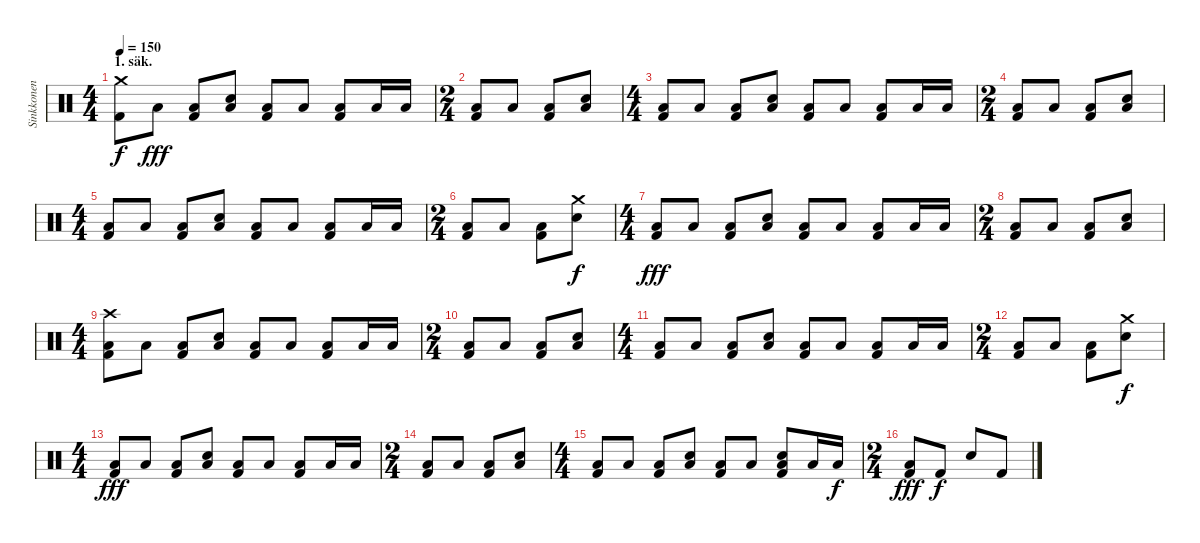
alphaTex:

\track ("Sinkkonen" "Sinkkonen") {instrument percussion}
\staff {score}
\articulation defaults
\ts (4 4)
\section ("" "1. säk.")
\tempo 150
\clef neutral
\ks c
("Kick (hit) 2" "Crash medium (hit)").8{dy f} "Low Floor Tom (hit)".8{dy fff} ("Kick (hit) 2" "Low Floor Tom (hit)").8 ("Low Floor Tom (hit)" "Snare (hit) 2").8 ("Kick (hit) 2" "Low Floor Tom (hit)").8 "Low Floor Tom (hit)".8 ("Kick (hit) 2" "Low Floor Tom (hit)").8 "Low Floor Tom (hit)".16 "Low Floor Tom (hit)".16 |
\ts (2 4)
("Kick (hit) 2" "Low Floor Tom (hit)").8 "Low Floor Tom (hit)".8 ("Kick (hit) 2" "Low Floor Tom (hit)").8 ("Low Floor Tom (hit)" "Snare (hit) 2").8 |
\ts (4 4)
("Kick (hit) 2" "Low Floor Tom (hit)").8 "Low Floor Tom (hit)".8 ("Kick (hit) 2" "Low Floor Tom (hit)").8 ("Low Floor Tom (hit)" "Snare (hit) 2").8 ("Kick (hit) 2" "Low Floor Tom (hit)").8 "Low Floor Tom (hit)".8 ("Kick (hit) 2" "Low Floor Tom (hit)").8 "Low Floor Tom (hit)".16 "Low Floor Tom (hit)".16 |
\ts (2 4)
("Kick (hit) 2" "Low Floor Tom (hit)").8 "Low Floor Tom (hit)".8 ("Kick (hit) 2" "Low Floor Tom (hit)").8 ("Low Floor Tom (hit)" "Snare (hit) 2").8 |
\ts (4 4)
("Kick (hit) 2" "Low Floor Tom (hit)").8 "Low Floor Tom (hit)".8 ("Kick (hit) 2" "Low Floor Tom (hit)").8 ("Low Floor Tom (hit)" "Snare (hit) 2").8 ("Kick (hit) 2" "Low Floor Tom (hit)").8 "Low Floor Tom (hit)".8 ("Kick (hit) 2" "Low Floor Tom (hit)").8 "Low Floor Tom (hit)".16 "Low Floor Tom (hit)".16 |
\ts (2 4)
("Kick (hit) 2" "Low Floor Tom (hit)").8 "Low Floor Tom (hit)".8 ("Kick (hit) 2" "Low Floor Tom (hit)").8 ("Crash medium (hit)" "Snare (hit) 2").8{dy f} |
\ts (4 4)
("Kick (hit) 2" "Low Floor Tom (hit)").8{dy fff} "Low Floor Tom (hit)".8 ("Kick (hit) 2" "Low Floor Tom (hit)").8 ("Low Floor Tom (hit)" "Snare (hit) 2").8 ("Kick (hit) 2" "Low Floor Tom (hit)").8 "Low Floor Tom (hit)".8 ("Kick (hit) 2" "Low Floor Tom (hit)").8 "Low Floor Tom (hit)".16 "Low Floor Tom (hit)".16 |
\ts (2 4)
("Kick (hit) 2" "Low Floor Tom (hit)").8 "Low Floor Tom (hit)".8 ("Kick (hit) 2" "Low Floor Tom (hit)").8 ("Low Floor Tom (hit)" "Snare (hit) 2").8 |
\ts (4 4)
("Kick (hit) 2" "Crash high (hit)" "Low Floor Tom (hit)").8 "Low Floor Tom (hit)".8 ("Kick (hit) 2" "Low Floor Tom (hit)").8 ("Low Floor Tom (hit)" "Snare (hit) 2").8 ("Kick (hit) 2" "Low Floor Tom (hit)").8 "Low Floor Tom (hit)".8 ("Kick (hit) 2" "Low Floor Tom (hit)").8 "Low Floor Tom (hit)".16 "Low Floor Tom (hit)".16 |
\ts (2 4)
("Kick (hit) 2" "Low Floor Tom (hit)").8 "Low Floor Tom (hit)".8 ("Kick (hit) 2" "Low Floor Tom (hit)").8 ("Low Floor Tom (hit)" "Snare (hit) 2").8 |
\ts (4 4)
("Kick (hit) 2" "Low Floor Tom (hit)").8 "Low Floor Tom (hit)".8 ("Kick (hit) 2" "Low Floor Tom (hit)").8 ("Low Floor Tom (hit)" "Snare (hit) 2").8 ("Kick (hit) 2" "Low Floor Tom (hit)").8 "Low Floor Tom (hit)".8 ("Kick (hit) 2" "Low Floor Tom (hit)").8 "Low Floor Tom (hit)".16 "Low Floor Tom (hit)".16 |
\ts (2 4)
("Kick (hit) 2" "Low Floor Tom (hit)").8 "Low Floor Tom (hit)".8 ("Kick (hit) 2" "Low Floor Tom (hit)").8 ("Crash medium (hit)" "Snare (hit) 2").8{dy f} |
\ts (4 4)
("Kick (hit) 2" "Low Floor Tom (hit)").8{dy fff} "Low Floor Tom (hit)".8 ("Kick (hit) 2" "Low Floor Tom (hit)").8 ("Low Floor Tom (hit)" "Snare (hit) 2").8 ("Kick (hit) 2" "Low Floor Tom (hit)").8 "Low Floor Tom (hit)".8 ("Kick (hit) 2" "Low Floor Tom (hit)").8 "Low Floor Tom (hit)".16 "Low Floor Tom (hit)".16 |
\ts (2 4)
("Kick (hit) 2" "Low Floor Tom (hit)").8 "Low Floor Tom (hit)".8 ("Kick (hit) 2" "Low Floor Tom (hit)").8 ("Low Floor Tom (hit)" "Snare (hit) 2").8 |
\ts (4 4)
("Kick (hit) 2" "Low Floor Tom (hit)").8 "Low Floor Tom (hit)".8 ("Kick (hit) 2" "Low Floor Tom (hit)").8 ("Low Floor Tom (hit)" "Snare (hit) 2").8 ("Kick (hit) 2" "Low Floor Tom (hit)").8 "Low Floor Tom (hit)".8 ("Kick (hit) 2" "Low Floor Tom (hit)" "Snare (hit) 2").8 "Low Floor Tom (hit)".16 "Low Floor Tom (hit)".16{dy f} |
\ts (2 4)
("Kick (hit) 2" "Low Floor Tom (hit)").8{dy fff} "Kick (hit) 2".8{dy f} "Snare (hit) 2".8 "Kick (hit) 2".8
